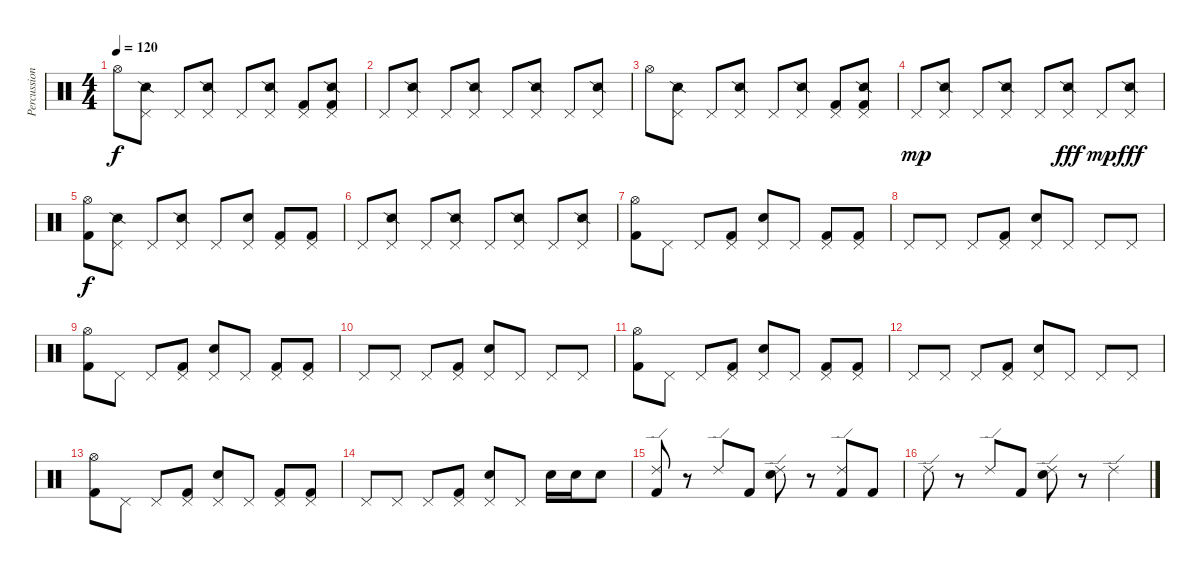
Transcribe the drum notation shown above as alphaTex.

\track ("Percussion" "Percussion") {instrument percussion}
\staff {score}
\articulation defaults
\ts (4 4)
\tempo 120
\clef neutral
\ks c "Hi-Hat (open)".8{dy f}
("Pedal Hi-Hat (hit)" "Snare (side stick) 2").8 "Pedal Hi-Hat (hit)".8 ("Pedal Hi-Hat (hit)" "Snare (side stick) 2").8 "Pedal Hi-Hat (hit)".8 ("Snare (side stick) 2" "Pedal Hi-Hat (hit)").8 ("Pedal Hi-Hat (hit)" "Kick (hit) 2").8 ("Snare (side stick) 2" "Pedal Hi-Hat (hit)" "Kick (hit) 2").8 |
"Pedal Hi-Hat (hit)".8 ("Pedal Hi-Hat (hit)" "Snare (side stick) 2").8 "Pedal Hi-Hat (hit)".8 ("Pedal Hi-Hat (hit)" "Snare (side stick) 2").8 "Pedal Hi-Hat (hit)".8 ("Snare (side stick) 2" "Pedal Hi-Hat (hit)").8 "Pedal Hi-Hat (hit)".8 ("Snare (side stick) 2" "Pedal Hi-Hat (hit)").8 |
"Hi-Hat (open)".8 ("Pedal Hi-Hat (hit)" "Snare (side stick) 2").8 "Pedal Hi-Hat (hit)".8 ("Pedal Hi-Hat (hit)" "Snare (side stick) 2").8 "Pedal Hi-Hat (hit)".8 ("Snare (side stick) 2" "Pedal Hi-Hat (hit)").8 ("Pedal Hi-Hat (hit)" "Kick (hit) 2").8 ("Snare (side stick) 2" "Pedal Hi-Hat (hit)" "Kick (hit) 2").8 |
"Pedal Hi-Hat (hit)".8{dy mp} ("Pedal Hi-Hat (hit)" "Snare (side stick) 2").8 "Pedal Hi-Hat (hit)".8 ("Pedal Hi-Hat (hit)" "Snare (side stick) 2").8 "Pedal Hi-Hat (hit)".8 ("Snare (side stick) 2" "Pedal Hi-Hat (hit)").8{dy fff} "Pedal Hi-Hat (hit)".8{dy mp} ("Snare (side stick) 2" "Pedal Hi-Hat (hit)").8{dy fff} |
("Hi-Hat (open)" "Kick (hit) 2").8{dy f} ("Pedal Hi-Hat (hit)" "Snare (side stick) 2").8 "Pedal Hi-Hat (hit)".8 ("Pedal Hi-Hat (hit)" "Snare (side stick) 2").8 "Pedal Hi-Hat (hit)".8 ("Pedal Hi-Hat (hit)" "Electric Snare (hit)").8 ("Pedal Hi-Hat (hit)" "Kick (hit) 2").8 ("Pedal Hi-Hat (hit)" "Kick (hit) 2").8 |
"Pedal Hi-Hat (hit)".8 ("Pedal Hi-Hat (hit)" "Snare (side stick) 2").8 "Pedal Hi-Hat (hit)".8 ("Pedal Hi-Hat (hit)" "Snare (side stick) 2").8 "Pedal Hi-Hat (hit)".8 ("Snare (side stick) 2" "Pedal Hi-Hat (hit)").8 "Pedal Hi-Hat (hit)".8 ("Snare (side stick) 2" "Pedal Hi-Hat (hit)").8 |
("Hi-Hat (open)" "Kick (hit) 2").8 "Pedal Hi-Hat (hit)".8 "Pedal Hi-Hat (hit)".8 ("Pedal Hi-Hat (hit)" "Kick (hit) 2").8 ("Pedal Hi-Hat (hit)" "Electric Snare (hit)").8 "Pedal Hi-Hat (hit)".8 ("Pedal Hi-Hat (hit)" "Kick (hit) 2").8 ("Pedal Hi-Hat (hit)" "Kick (hit) 2").8 |
"Pedal Hi-Hat (hit)".8 "Pedal Hi-Hat (hit)".8 "Pedal Hi-Hat (hit)".8 ("Pedal Hi-Hat (hit)" "Kick (hit) 2").8 ("Pedal Hi-Hat (hit)" "Electric Snare (hit)").8 "Pedal Hi-Hat (hit)".8 "Pedal Hi-Hat (hit)".8 "Pedal Hi-Hat (hit)".8 |
("Hi-Hat (open)" "Kick (hit) 2").8 "Pedal Hi-Hat (hit)".8 "Pedal Hi-Hat (hit)".8 ("Pedal Hi-Hat (hit)" "Kick (hit) 2").8 ("Pedal Hi-Hat (hit)" "Electric Snare (hit)").8 "Pedal Hi-Hat (hit)".8 ("Pedal Hi-Hat (hit)" "Kick (hit) 2").8 ("Pedal Hi-Hat (hit)" "Kick (hit) 2").8 |
"Pedal Hi-Hat (hit)".8 "Pedal Hi-Hat (hit)".8 "Pedal Hi-Hat (hit)".8 ("Pedal Hi-Hat (hit)" "Kick (hit) 2").8 ("Pedal Hi-Hat (hit)" "Electric Snare (hit)").8 "Pedal Hi-Hat (hit)".8 "Pedal Hi-Hat (hit)".8 "Pedal Hi-Hat (hit)".8 |
("Hi-Hat (open)" "Kick (hit) 2").8 "Pedal Hi-Hat (hit)".8 "Pedal Hi-Hat (hit)".8 ("Pedal Hi-Hat (hit)" "Kick (hit) 2").8 ("Pedal Hi-Hat (hit)" "Electric Snare (hit)").8 "Pedal Hi-Hat (hit)".8 ("Pedal Hi-Hat (hit)" "Kick (hit) 2").8 ("Pedal Hi-Hat (hit)" "Kick (hit) 2").8 |
"Pedal Hi-Hat (hit)".8 "Pedal Hi-Hat (hit)".8 "Pedal Hi-Hat (hit)".8 ("Pedal Hi-Hat (hit)" "Kick (hit) 2").8 ("Pedal Hi-Hat (hit)" "Electric Snare (hit)").8 "Pedal Hi-Hat (hit)".8 "Pedal Hi-Hat (hit)".8 "Pedal Hi-Hat (hit)".8 |
("Hi-Hat (open)" "Kick (hit) 2").8 "Pedal Hi-Hat (hit)".8 "Pedal Hi-Hat (hit)".8 ("Pedal Hi-Hat (hit)" "Kick (hit) 2").8 ("Pedal Hi-Hat (hit)" "Electric Snare (hit)").8 "Pedal Hi-Hat (hit)".8 ("Pedal Hi-Hat (hit)" "Kick (hit) 2").8 ("Pedal Hi-Hat (hit)" "Kick (hit) 2").8 |
"Pedal Hi-Hat (hit)".8 "Pedal Hi-Hat (hit)".8 "Pedal Hi-Hat (hit)".8 ("Pedal Hi-Hat (hit)" "Kick (hit) 2").8 ("Pedal Hi-Hat (hit)" "Electric Snare (hit)").8 "Pedal Hi-Hat (hit)".8 "Electric Snare (hit)".16 "Electric Snare (hit)".16 "Electric Snare (hit)".8 |
("Ride (edge) 2" "Kick (hit) 2").8 r.8 "Ride (edge) 2".8 "Kick (hit) 2".8 ("Ride (edge) 2" "Electric Snare (hit)").8 r.8 ("Ride (edge) 2" "Kick (hit) 2").8 "Kick (hit) 2".8 |
"Ride (edge) 2".8 r.8 "Ride (edge) 2".8 "Kick (hit) 2".8 ("Ride (edge) 2" "Electric Snare (hit)").8 r.8 "Ride (edge) 2".4
